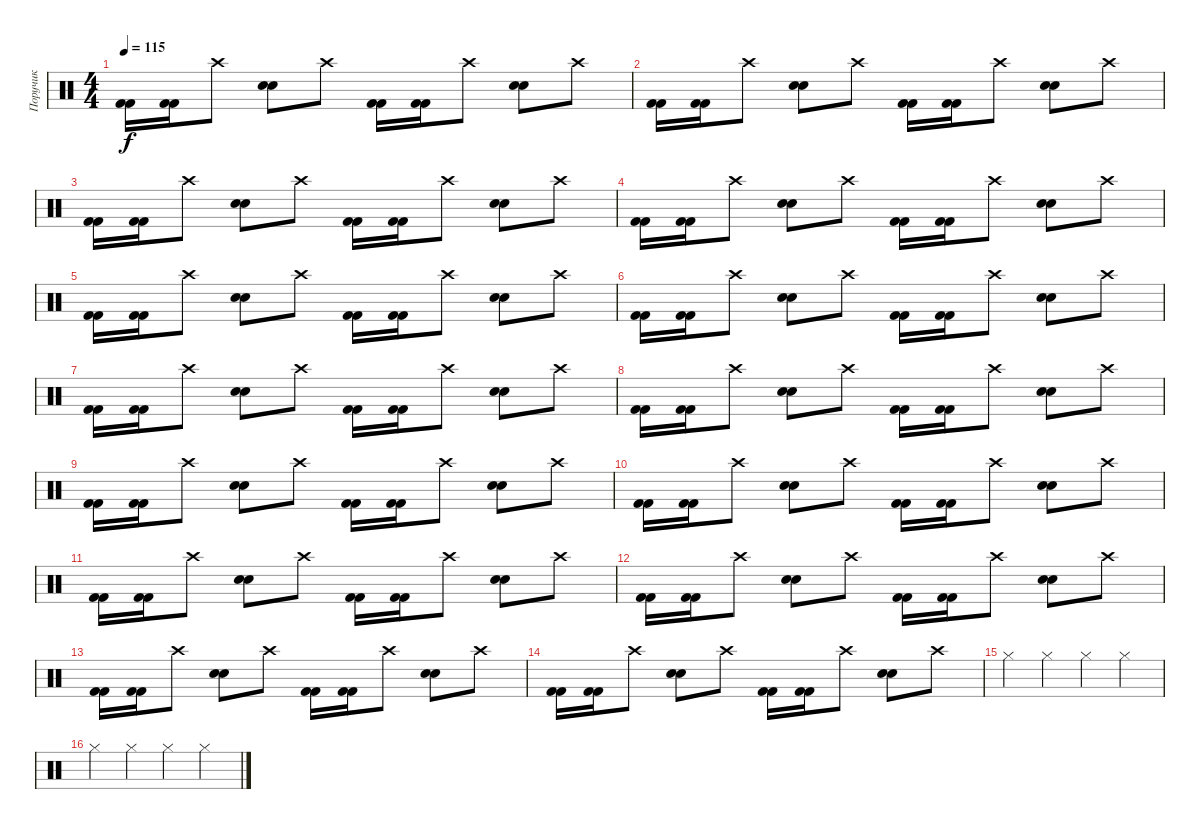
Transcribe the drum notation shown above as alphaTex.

\track ("Поручик" "Поручик") {instrument percussion}
\staff {score}
\articulation defaults
\ts (4 4)
\tempo 115
\clef neutral
\ks c
("Kick (hit) 2" "Kick (hit) 2").16{dy f} ("Kick (hit) 2" "Kick (hit) 2").16 "Crash high (hit)".8 ("Snare (hit) 2" "Snare (hit) 2").8 "Crash high (hit)".8 ("Kick (hit) 2" "Kick (hit) 2").16 ("Kick (hit) 2" "Kick (hit) 2").16 "Crash high (hit)".8 ("Snare (hit) 2" "Snare (hit) 2").8 "Crash high (hit)".8 |
("Kick (hit) 2" "Kick (hit) 2").16 ("Kick (hit) 2" "Kick (hit) 2").16 "Crash high (hit)".8 ("Snare (hit) 2" "Snare (hit) 2").8 "Crash high (hit)".8 ("Kick (hit) 2" "Kick (hit) 2").16 ("Kick (hit) 2" "Kick (hit) 2").16 "Crash high (hit)".8 ("Snare (hit) 2" "Snare (hit) 2").8 "Crash high (hit)".8 |
("Kick (hit) 2" "Kick (hit) 2").16 ("Kick (hit) 2" "Kick (hit) 2").16 "Crash high (hit)".8 ("Snare (hit) 2" "Snare (hit) 2").8 "Crash high (hit)".8 ("Kick (hit) 2" "Kick (hit) 2").16 ("Kick (hit) 2" "Kick (hit) 2").16 "Crash high (hit)".8 ("Snare (hit) 2" "Snare (hit) 2").8 "Crash high (hit)".8 |
("Kick (hit) 2" "Kick (hit) 2").16 ("Kick (hit) 2" "Kick (hit) 2").16 "Crash high (hit)".8 ("Snare (hit) 2" "Snare (hit) 2").8 "Crash high (hit)".8 ("Kick (hit) 2" "Kick (hit) 2").16 ("Kick (hit) 2" "Kick (hit) 2").16 "Crash high (hit)".8 ("Snare (hit) 2" "Snare (hit) 2").8 "Crash high (hit)".8 |
("Kick (hit) 2" "Kick (hit) 2").16 ("Kick (hit) 2" "Kick (hit) 2").16 "Crash high (hit)".8 ("Snare (hit) 2" "Snare (hit) 2").8 "Crash high (hit)".8 ("Kick (hit) 2" "Kick (hit) 2").16 ("Kick (hit) 2" "Kick (hit) 2").16 "Crash high (hit)".8 ("Snare (hit) 2" "Snare (hit) 2").8 "Crash high (hit)".8 |
("Kick (hit) 2" "Kick (hit) 2").16 ("Kick (hit) 2" "Kick (hit) 2").16 "Crash high (hit)".8 ("Snare (hit) 2" "Snare (hit) 2").8 "Crash high (hit)".8 ("Kick (hit) 2" "Kick (hit) 2").16 ("Kick (hit) 2" "Kick (hit) 2").16 "Crash high (hit)".8 ("Snare (hit) 2" "Snare (hit) 2").8 "Crash high (hit)".8 |
("Kick (hit) 2" "Kick (hit) 2").16 ("Kick (hit) 2" "Kick (hit) 2").16 "Crash high (hit)".8 ("Snare (hit) 2" "Snare (hit) 2").8 "Crash high (hit)".8 ("Kick (hit) 2" "Kick (hit) 2").16 ("Kick (hit) 2" "Kick (hit) 2").16 "Crash high (hit)".8 ("Snare (hit) 2" "Snare (hit) 2").8 "Crash high (hit)".8 |
("Kick (hit) 2" "Kick (hit) 2").16 ("Kick (hit) 2" "Kick (hit) 2").16 "Crash high (hit)".8 ("Snare (hit) 2" "Snare (hit) 2").8 "Crash high (hit)".8 ("Kick (hit) 2" "Kick (hit) 2").16 ("Kick (hit) 2" "Kick (hit) 2").16 "Crash high (hit)".8 ("Snare (hit) 2" "Snare (hit) 2").8 "Crash high (hit)".8 |
("Kick (hit) 2" "Kick (hit) 2").16 ("Kick (hit) 2" "Kick (hit) 2").16 "Crash high (hit)".8 ("Snare (hit) 2" "Snare (hit) 2").8 "Crash high (hit)".8 ("Kick (hit) 2" "Kick (hit) 2").16 ("Kick (hit) 2" "Kick (hit) 2").16 "Crash high (hit)".8 ("Snare (hit) 2" "Snare (hit) 2").8 "Crash high (hit)".8 |
("Kick (hit) 2" "Kick (hit) 2").16 ("Kick (hit) 2" "Kick (hit) 2").16 "Crash high (hit)".8 ("Snare (hit) 2" "Snare (hit) 2").8 "Crash high (hit)".8 ("Kick (hit) 2" "Kick (hit) 2").16 ("Kick (hit) 2" "Kick (hit) 2").16 "Crash high (hit)".8 ("Snare (hit) 2" "Snare (hit) 2").8 "Crash high (hit)".8 |
("Kick (hit) 2" "Kick (hit) 2").16 ("Kick (hit) 2" "Kick (hit) 2").16 "Crash high (hit)".8 ("Snare (hit) 2" "Snare (hit) 2").8 "Crash high (hit)".8 ("Kick (hit) 2" "Kick (hit) 2").16 ("Kick (hit) 2" "Kick (hit) 2").16 "Crash high (hit)".8 ("Snare (hit) 2" "Snare (hit) 2").8 "Crash high (hit)".8 |
("Kick (hit) 2" "Kick (hit) 2").16 ("Kick (hit) 2" "Kick (hit) 2").16 "Crash high (hit)".8 ("Snare (hit) 2" "Snare (hit) 2").8 "Crash high (hit)".8 ("Kick (hit) 2" "Kick (hit) 2").16 ("Kick (hit) 2" "Kick (hit) 2").16 "Crash high (hit)".8 ("Snare (hit) 2" "Snare (hit) 2").8 "Crash high (hit)".8 |
("Kick (hit) 2" "Kick (hit) 2").16 ("Kick (hit) 2" "Kick (hit) 2").16 "Crash high (hit)".8 ("Snare (hit) 2" "Snare (hit) 2").8 "Crash high (hit)".8 ("Kick (hit) 2" "Kick (hit) 2").16 ("Kick (hit) 2" "Kick (hit) 2").16 "Crash high (hit)".8 ("Snare (hit) 2" "Snare (hit) 2").8 "Crash high (hit)".8 |
("Kick (hit) 2" "Kick (hit) 2").16 ("Kick (hit) 2" "Kick (hit) 2").16 "Crash high (hit)".8 ("Snare (hit) 2" "Snare (hit) 2").8 "Crash high (hit)".8 ("Kick (hit) 2" "Kick (hit) 2").16 ("Kick (hit) 2" "Kick (hit) 2").16 "Crash high (hit)".8 ("Snare (hit) 2" "Snare (hit) 2").8 "Crash high (hit)".8 |
"Hi-Hat (closed)".4 "Hi-Hat (closed)".4 "Hi-Hat (closed)".4 "Hi-Hat (closed)".4 |
"Hi-Hat (closed)".4 "Hi-Hat (closed)".4 "Hi-Hat (closed)".4 "Hi-Hat (closed)".4
